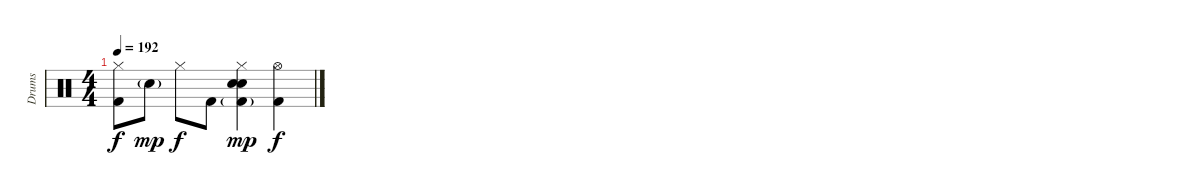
\track ("Drums" "Drums") {instrument percussion}
\staff {score}
\articulation defaults
\ts (4 4)
\tempo 192
\clef neutral
\ks c
("Hi-Hat (closed)" "Kick (hit) 2").8{dy f} "Electric Snare (hit)"{g}.8{dy mp} "Hi-Hat (closed)".8{dy f} "Kick (hit) 2".8 ("Hi-Hat (closed)" "Hand Clap (hit)" "Electric Snare (hit)" "Kick (hit) 2"{g}).4{dy mp} ("Hi-Hat (open)" "Kick (hit) 2").4{dy f}
